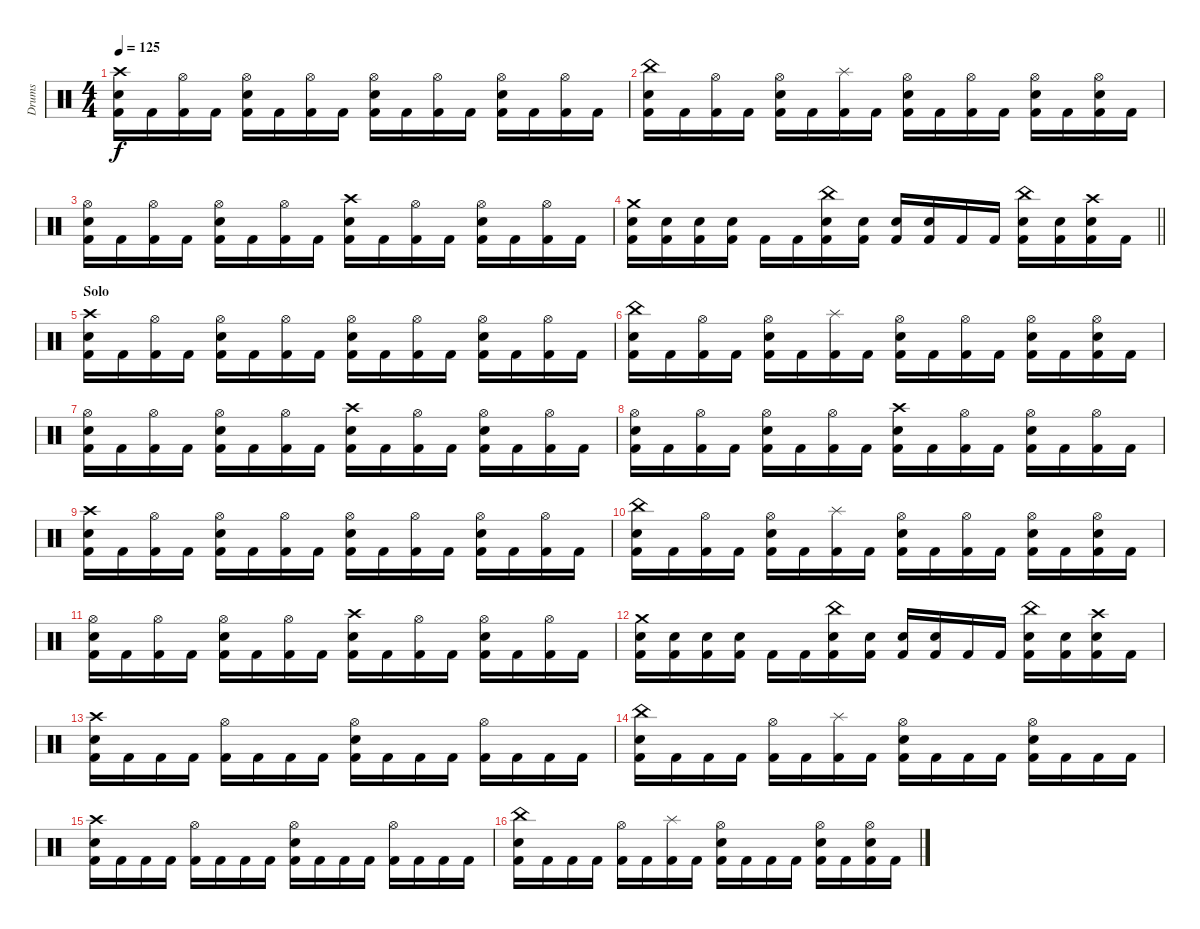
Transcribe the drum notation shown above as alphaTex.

\track ("Drums" "Drums") {instrument percussion}
\staff {score}
\articulation defaults
\ts (4 4)
\tempo 125
\clef neutral
\ks c
("Crash high (hit)" "Electric Snare (hit)" "Kick (hit) 2").16{dy f} "Kick (hit) 2".16 ("Hi-Hat (open)" "Kick (hit) 2").16 "Kick (hit) 2".16 ("Hi-Hat (open)" "Electric Snare (hit)" "Kick (hit) 2").16 "Kick (hit) 2".16 ("Hi-Hat (open)" "Kick (hit) 2").16 "Kick (hit) 2".16 ("Hi-Hat (open)" "Electric Snare (hit)" "Kick (hit) 2").16 "Kick (hit) 2".16 ("Hi-Hat (open)" "Kick (hit) 2").16 "Kick (hit) 2".16 ("Hi-Hat (open)" "Electric Snare (hit)" "Kick (hit) 2").16 "Kick (hit) 2".16 ("Hi-Hat (open)" "Kick (hit) 2").16 "Kick (hit) 2".16 |
("China (hit)" "Electric Snare (hit)" "Kick (hit) 2").16 "Kick (hit) 2".16 ("Hi-Hat (open)" "Kick (hit) 2").16 "Kick (hit) 2".16 ("Hi-Hat (open)" "Electric Snare (hit)" "Kick (hit) 2").16 "Kick (hit) 2".16 ("Splash (hit)" "Kick (hit) 2").16 "Kick (hit) 2".16 ("Hi-Hat (open)" "Electric Snare (hit)" "Kick (hit) 2").16 "Kick (hit) 2".16 ("Hi-Hat (open)" "Kick (hit) 2").16 "Kick (hit) 2".16 ("Hi-Hat (open)" "Electric Snare (hit)" "Kick (hit) 2").16 "Kick (hit) 2".16 ("Hi-Hat (open)" "Electric Snare (hit)" "Kick (hit) 2").16 "Kick (hit) 2".16 |
("Hi-Hat (open)" "Electric Snare (hit)" "Kick (hit) 2").16 "Kick (hit) 2".16 ("Hi-Hat (open)" "Kick (hit) 2").16 "Kick (hit) 2".16 ("Hi-Hat (open)" "Electric Snare (hit)" "Kick (hit) 2").16 "Kick (hit) 2".16 ("Hi-Hat (open)" "Kick (hit) 2").16 "Kick (hit) 2".16 ("Crash high (hit)" "Electric Snare (hit)" "Kick (hit) 2").16 "Kick (hit) 2".16 ("Hi-Hat (open)" "Kick (hit) 2").16 "Kick (hit) 2".16 ("Hi-Hat (open)" "Electric Snare (hit)" "Kick (hit) 2").16 "Kick (hit) 2".16 ("Hi-Hat (open)" "Kick (hit) 2").16 "Kick (hit) 2".16 |
\barLineRight lightlight
("Crash medium (hit)" "Electric Snare (hit)" "Kick (hit) 2").16 ("Electric Snare (hit)" "Kick (hit) 2").16 ("Electric Snare (hit)" "Kick (hit) 2").16 ("Electric Snare (hit)" "Kick (hit) 2").16 "Kick (hit) 2".16 "Kick (hit) 2".16 ("China (hit)" "Electric Snare (hit)" "Kick (hit) 2").16 ("Electric Snare (hit)" "Kick (hit) 2").16 ("Electric Snare (hit)" "Kick (hit) 2").16 ("Electric Snare (hit)" "Kick (hit) 2").16 "Kick (hit) 2".16 "Kick (hit) 2".16 ("China (hit)" "Electric Snare (hit)" "Kick (hit) 2").16 ("Electric Snare (hit)" "Kick (hit) 2").16 ("Crash high (hit)" "Electric Snare (hit)" "Kick (hit) 2").16 "Kick (hit) 2".16 |
\section ("" "Solo")
("Crash high (hit)" "Electric Snare (hit)" "Kick (hit) 2").16 "Kick (hit) 2".16 ("Hi-Hat (open)" "Kick (hit) 2").16 "Kick (hit) 2".16 ("Hi-Hat (open)" "Electric Snare (hit)" "Kick (hit) 2").16 "Kick (hit) 2".16 ("Hi-Hat (open)" "Kick (hit) 2").16 "Kick (hit) 2".16 ("Hi-Hat (open)" "Electric Snare (hit)" "Kick (hit) 2").16 "Kick (hit) 2".16 ("Hi-Hat (open)" "Kick (hit) 2").16 "Kick (hit) 2".16 ("Hi-Hat (open)" "Electric Snare (hit)" "Kick (hit) 2").16 "Kick (hit) 2".16 ("Hi-Hat (open)" "Kick (hit) 2").16 "Kick (hit) 2".16 |
("China (hit)" "Electric Snare (hit)" "Kick (hit) 2").16 "Kick (hit) 2".16 ("Hi-Hat (open)" "Kick (hit) 2").16 "Kick (hit) 2".16 ("Hi-Hat (open)" "Electric Snare (hit)" "Kick (hit) 2").16 "Kick (hit) 2".16 ("Splash (hit)" "Kick (hit) 2").16 "Kick (hit) 2".16 ("Hi-Hat (open)" "Electric Snare (hit)" "Kick (hit) 2").16 "Kick (hit) 2".16 ("Hi-Hat (open)" "Kick (hit) 2").16 "Kick (hit) 2".16 ("Hi-Hat (open)" "Electric Snare (hit)" "Kick (hit) 2").16 "Kick (hit) 2".16 ("Hi-Hat (open)" "Electric Snare (hit)" "Kick (hit) 2").16 "Kick (hit) 2".16 |
("Hi-Hat (open)" "Electric Snare (hit)" "Kick (hit) 2").16 "Kick (hit) 2".16 ("Hi-Hat (open)" "Kick (hit) 2").16 "Kick (hit) 2".16 ("Hi-Hat (open)" "Electric Snare (hit)" "Kick (hit) 2").16 "Kick (hit) 2".16 ("Hi-Hat (open)" "Kick (hit) 2").16 "Kick (hit) 2".16 ("Crash high (hit)" "Electric Snare (hit)" "Kick (hit) 2").16 "Kick (hit) 2".16 ("Hi-Hat (open)" "Kick (hit) 2").16 "Kick (hit) 2".16 ("Hi-Hat (open)" "Electric Snare (hit)" "Kick (hit) 2").16 "Kick (hit) 2".16 ("Hi-Hat (open)" "Kick (hit) 2").16 "Kick (hit) 2".16 |
("Hi-Hat (open)" "Electric Snare (hit)" "Kick (hit) 2").16 "Kick (hit) 2".16 ("Hi-Hat (open)" "Kick (hit) 2").16 "Kick (hit) 2".16 ("Hi-Hat (open)" "Electric Snare (hit)" "Kick (hit) 2").16 "Kick (hit) 2".16 ("Hi-Hat (open)" "Kick (hit) 2").16 "Kick (hit) 2".16 ("Crash high (hit)" "Electric Snare (hit)" "Kick (hit) 2").16 "Kick (hit) 2".16 ("Hi-Hat (open)" "Kick (hit) 2").16 "Kick (hit) 2".16 ("Hi-Hat (open)" "Electric Snare (hit)" "Kick (hit) 2").16 "Kick (hit) 2".16 ("Hi-Hat (open)" "Kick (hit) 2").16 "Kick (hit) 2".16 |
("Crash high (hit)" "Electric Snare (hit)" "Kick (hit) 2").16 "Kick (hit) 2".16 ("Hi-Hat (open)" "Kick (hit) 2").16 "Kick (hit) 2".16 ("Hi-Hat (open)" "Electric Snare (hit)" "Kick (hit) 2").16 "Kick (hit) 2".16 ("Hi-Hat (open)" "Kick (hit) 2").16 "Kick (hit) 2".16 ("Hi-Hat (open)" "Electric Snare (hit)" "Kick (hit) 2").16 "Kick (hit) 2".16 ("Hi-Hat (open)" "Kick (hit) 2").16 "Kick (hit) 2".16 ("Hi-Hat (open)" "Electric Snare (hit)" "Kick (hit) 2").16 "Kick (hit) 2".16 ("Hi-Hat (open)" "Kick (hit) 2").16 "Kick (hit) 2".16 |
("China (hit)" "Electric Snare (hit)" "Kick (hit) 2").16 "Kick (hit) 2".16 ("Hi-Hat (open)" "Kick (hit) 2").16 "Kick (hit) 2".16 ("Hi-Hat (open)" "Electric Snare (hit)" "Kick (hit) 2").16 "Kick (hit) 2".16 ("Splash (hit)" "Kick (hit) 2").16 "Kick (hit) 2".16 ("Hi-Hat (open)" "Electric Snare (hit)" "Kick (hit) 2").16 "Kick (hit) 2".16 ("Hi-Hat (open)" "Kick (hit) 2").16 "Kick (hit) 2".16 ("Hi-Hat (open)" "Electric Snare (hit)" "Kick (hit) 2").16 "Kick (hit) 2".16 ("Hi-Hat (open)" "Electric Snare (hit)" "Kick (hit) 2").16 "Kick (hit) 2".16 |
("Hi-Hat (open)" "Electric Snare (hit)" "Kick (hit) 2").16 "Kick (hit) 2".16 ("Hi-Hat (open)" "Kick (hit) 2").16 "Kick (hit) 2".16 ("Hi-Hat (open)" "Electric Snare (hit)" "Kick (hit) 2").16 "Kick (hit) 2".16 ("Hi-Hat (open)" "Kick (hit) 2").16 "Kick (hit) 2".16 ("Crash high (hit)" "Electric Snare (hit)" "Kick (hit) 2").16 "Kick (hit) 2".16 ("Hi-Hat (open)" "Kick (hit) 2").16 "Kick (hit) 2".16 ("Hi-Hat (open)" "Electric Snare (hit)" "Kick (hit) 2").16 "Kick (hit) 2".16 ("Hi-Hat (open)" "Kick (hit) 2").16 "Kick (hit) 2".16 |
("Crash medium (hit)" "Electric Snare (hit)" "Kick (hit) 2").16 ("Electric Snare (hit)" "Kick (hit) 2").16 ("Electric Snare (hit)" "Kick (hit) 2").16 ("Electric Snare (hit)" "Kick (hit) 2").16 "Kick (hit) 2".16 "Kick (hit) 2".16 ("China (hit)" "Electric Snare (hit)" "Kick (hit) 2").16 ("Electric Snare (hit)" "Kick (hit) 2").16 ("Electric Snare (hit)" "Kick (hit) 2").16 ("Electric Snare (hit)" "Kick (hit) 2").16 "Kick (hit) 2".16 "Kick (hit) 2".16 ("China (hit)" "Electric Snare (hit)" "Kick (hit) 2").16 ("Electric Snare (hit)" "Kick (hit) 2").16 ("Crash high (hit)" "Electric Snare (hit)" "Kick (hit) 2").16 "Kick (hit) 2".16 |
("Crash high (hit)" "Electric Snare (hit)" "Kick (hit) 2").16 "Kick (hit) 2".16 "Kick (hit) 2".16 "Kick (hit) 2".16 ("Hi-Hat (open)" "Kick (hit) 2").16 "Kick (hit) 2".16 "Kick (hit) 2".16 "Kick (hit) 2".16 ("Hi-Hat (open)" "Electric Snare (hit)" "Kick (hit) 2").16 "Kick (hit) 2".16 "Kick (hit) 2".16 "Kick (hit) 2".16 ("Hi-Hat (open)" "Kick (hit) 2").16 "Kick (hit) 2".16 "Kick (hit) 2".16 "Kick (hit) 2".16 |
("China (hit)" "Electric Snare (hit)" "Kick (hit) 2").16 "Kick (hit) 2".16 "Kick (hit) 2".16 "Kick (hit) 2".16 ("Hi-Hat (open)" "Kick (hit) 2").16 "Kick (hit) 2".16 ("Splash (hit)" "Kick (hit) 2").16 "Kick (hit) 2".16 ("Hi-Hat (open)" "Electric Snare (hit)" "Kick (hit) 2").16 "Kick (hit) 2".16 "Kick (hit) 2".16 "Kick (hit) 2".16 ("Hi-Hat (open)" "Electric Snare (hit)" "Kick (hit) 2").16 "Kick (hit) 2".16 "Kick (hit) 2".16 "Kick (hit) 2".16 |
("Crash high (hit)" "Electric Snare (hit)" "Kick (hit) 2").16 "Kick (hit) 2".16 "Kick (hit) 2".16 "Kick (hit) 2".16 ("Hi-Hat (open)" "Kick (hit) 2").16 "Kick (hit) 2".16 "Kick (hit) 2".16 "Kick (hit) 2".16 ("Hi-Hat (open)" "Electric Snare (hit)" "Kick (hit) 2").16 "Kick (hit) 2".16 "Kick (hit) 2".16 "Kick (hit) 2".16 ("Hi-Hat (open)" "Kick (hit) 2").16 "Kick (hit) 2".16 "Kick (hit) 2".16 "Kick (hit) 2".16 |
("China (hit)" "Electric Snare (hit)" "Kick (hit) 2").16 "Kick (hit) 2".16 "Kick (hit) 2".16 "Kick (hit) 2".16 ("Hi-Hat (open)" "Kick (hit) 2").16 "Kick (hit) 2".16 ("Splash (hit)" "Kick (hit) 2").16 "Kick (hit) 2".16 ("Hi-Hat (open)" "Electric Snare (hit)" "Kick (hit) 2").16 "Kick (hit) 2".16 "Kick (hit) 2".16 "Kick (hit) 2".16 ("Hi-Hat (open)" "Electric Snare (hit)" "Kick (hit) 2").16 "Kick (hit) 2".16 ("Hi-Hat (open)" "Electric Snare (hit)" "Kick (hit) 2").16 "Kick (hit) 2".16
